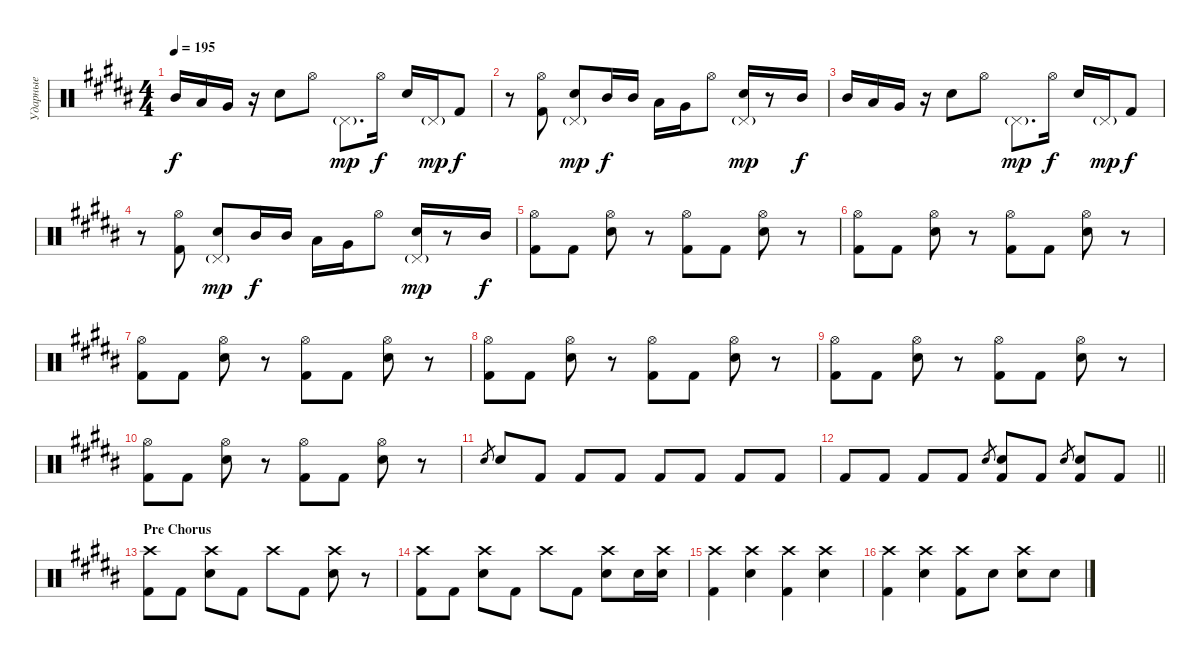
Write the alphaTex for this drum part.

\track ("Ударные" "Ударные") {instrument percussion}
\staff {score}
\articulation defaults
\ts (4 4)
\tempo 195
\clef neutral
\ks b "Mid Tom (hit)".16{dy f} "Low Tom (hit)".16 "Very Low Tom (hit)".16
r.16 "Electric Snare (hit)".8 "Hi-Hat (open)".8 "Pedal Hi-Hat (hit)"{g}.8{d dy mp} "Hi-Hat (open)".16{dy f} "Electric Snare (hit)".16 "Pedal Hi-Hat (hit)"{g}.16{dy mp} "Kick (hit) 2".8{dy f} |
r.8 ("Hi-Hat (open)" "Kick (hit) 2").8 ("Pedal Hi-Hat (hit)"{g} "Electric Snare (hit)").8{dy mp} "Mid Tom (hit)".16{dy f} "Mid Tom (hit)".16 "Low Tom (hit)".16 "Very Low Tom (hit)".16 "Hi-Hat (open)".8 ("Pedal Hi-Hat (hit)"{g} "Electric Snare (hit)").16{dy mp} r.8 "Mid Tom (hit)".16{dy f} |
"Mid Tom (hit)".16 "Low Tom (hit)".16 "Very Low Tom (hit)".16 r.16 "Electric Snare (hit)".8 "Hi-Hat (open)".8 "Pedal Hi-Hat (hit)"{g}.8{d dy mp} "Hi-Hat (open)".16{dy f} "Electric Snare (hit)".16 "Pedal Hi-Hat (hit)"{g}.16{dy mp} "Kick (hit) 2".8{dy f} |
r.8 ("Hi-Hat (open)" "Kick (hit) 2").8 ("Pedal Hi-Hat (hit)"{g} "Electric Snare (hit)").8{dy mp} "Mid Tom (hit)".16{dy f} "Mid Tom (hit)".16 "Low Tom (hit)".16 "Very Low Tom (hit)".16 "Hi-Hat (open)".8 ("Pedal Hi-Hat (hit)"{g} "Electric Snare (hit)").16{dy mp} r.8 "Mid Tom (hit)".16{dy f} |
("Hi-Hat (open)" "Kick (hit) 2").8 "Kick (hit) 2".8 ("Hi-Hat (open)" "Electric Snare (hit)").8 r.8 ("Hi-Hat (open)" "Kick (hit) 2").8 "Kick (hit) 2".8 ("Hi-Hat (open)" "Electric Snare (hit)").8 r.8 |
("Hi-Hat (open)" "Kick (hit) 2").8 "Kick (hit) 2".8 ("Hi-Hat (open)" "Electric Snare (hit)").8 r.8 ("Hi-Hat (open)" "Kick (hit) 2").8 "Kick (hit) 2".8 ("Hi-Hat (open)" "Electric Snare (hit)").8 r.8 |
("Hi-Hat (open)" "Kick (hit) 2").8 "Kick (hit) 2".8 ("Hi-Hat (open)" "Electric Snare (hit)").8 r.8 ("Hi-Hat (open)" "Kick (hit) 2").8 "Kick (hit) 2".8 ("Hi-Hat (open)" "Electric Snare (hit)").8 r.8 |
("Hi-Hat (open)" "Kick (hit) 2").8 "Kick (hit) 2".8 ("Hi-Hat (open)" "Electric Snare (hit)").8 r.8 ("Hi-Hat (open)" "Kick (hit) 2").8 "Kick (hit) 2".8 ("Hi-Hat (open)" "Electric Snare (hit)").8 r.8 |
("Hi-Hat (open)" "Kick (hit) 2").8 "Kick (hit) 2".8 ("Hi-Hat (open)" "Electric Snare (hit)").8 r.8 ("Hi-Hat (open)" "Kick (hit) 2").8 "Kick (hit) 2".8 ("Hi-Hat (open)" "Electric Snare (hit)").8 r.8 |
("Hi-Hat (open)" "Kick (hit) 2").8 "Kick (hit) 2".8 ("Hi-Hat (open)" "Electric Snare (hit)").8 r.8 ("Hi-Hat (open)" "Kick (hit) 2").8 "Kick (hit) 2".8 ("Hi-Hat (open)" "Electric Snare (hit)").8 r.8 |
"Electric Snare (hit)".8{gr} "Electric Snare (hit)".8 "Kick (hit) 2".8{volume 7} "Kick (hit) 2".8{volume 16} "Kick (hit) 2".8 "Kick (hit) 2".8 "Kick (hit) 2".8 "Kick (hit) 2".8 "Kick (hit) 2".8 |
\barLineRight lightlight "Kick (hit) 2".8 "Kick (hit) 2".8 "Kick (hit) 2".8 "Kick (hit) 2".8 "Electric Snare (hit)".8{gr}
("Electric Snare (hit)" "Kick (hit) 2").8 "Kick (hit) 2".8 "Electric Snare (hit)".8{gr} ("Electric Snare (hit)" "Kick (hit) 2").8 "Kick (hit) 2".8 |
\section ("" "Pre Chorus")
("Crash high (hit)" "Kick (hit) 2").8 "Kick (hit) 2".8 ("Crash high (hit)" "Electric Snare (hit)").8 "Kick (hit) 2".8 "Crash high (hit)".8 "Kick (hit) 2".8 ("Crash high (hit)" "Electric Snare (hit)").8 r.8 |
("Crash high (hit)" "Kick (hit) 2").8 "Kick (hit) 2".8 ("Crash high (hit)" "Electric Snare (hit)").8 "Kick (hit) 2".8 "Crash high (hit)".8 "Kick (hit) 2".8 ("Crash high (hit)" "Electric Snare (hit)").8 "Electric Snare (hit)".16 ("Crash high (hit)" "Electric Snare (hit)").16 |
("Crash high (hit)" "Kick (hit) 2").4 ("Crash high (hit)" "Electric Snare (hit)").4 ("Crash high (hit)" "Kick (hit) 2").4 ("Crash high (hit)" "Electric Snare (hit)").4 |
("Crash high (hit)" "Kick (hit) 2").4 ("Crash high (hit)" "Electric Snare (hit)").4 ("Crash high (hit)" "Kick (hit) 2").8 "Electric Snare (hit)".8 ("Crash high (hit)" "Electric Snare (hit)").8 "Electric Snare (hit)".8
